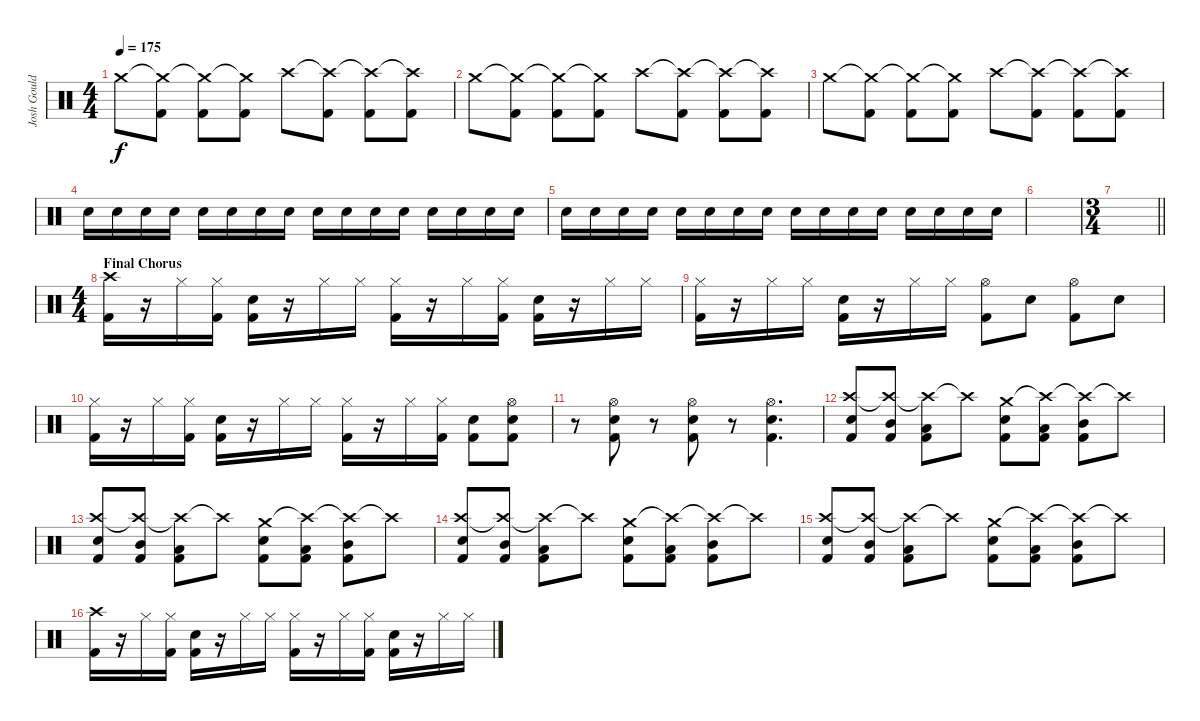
\track ("Josh Gould - Drums" "Josh Gould") {instrument percussion}
\staff {score}
\articulation defaults
\ts (4 4)
\tempo 175
\clef neutral
\ks c "Crash medium (hit)".8{dy f}
("Crash medium (hit)"{t} "Kick (hit) 2").8 ("Crash medium (hit)"{t} "Kick (hit) 2").8 ("Crash medium (hit)"{t} "Kick (hit) 2").8 "Crash high (hit)".8 ("Crash high (hit)"{t} "Kick (hit) 2").8 ("Crash high (hit)"{t} "Kick (hit) 2").8 ("Crash high (hit)"{t} "Kick (hit) 2").8 |
"Crash medium (hit)".8 ("Crash medium (hit)"{t} "Kick (hit) 2").8 ("Crash medium (hit)"{t} "Kick (hit) 2").8 ("Crash medium (hit)"{t} "Kick (hit) 2").8 "Crash high (hit)".8 ("Crash high (hit)"{t} "Kick (hit) 2").8 ("Crash high (hit)"{t} "Kick (hit) 2").8 ("Crash high (hit)"{t} "Kick (hit) 2").8 |
"Crash medium (hit)".8 ("Crash medium (hit)"{t} "Kick (hit) 2").8 ("Crash medium (hit)"{t} "Kick (hit) 2").8 ("Crash medium (hit)"{t} "Kick (hit) 2").8 "Crash high (hit)".8 ("Crash high (hit)"{t} "Kick (hit) 2").8 ("Crash high (hit)"{t} "Kick (hit) 2").8 ("Crash high (hit)"{t} "Kick (hit) 2").8 |
"Snare (hit) 2".16 "Snare (hit) 2".16 "Snare (hit) 2".16 "Snare (hit) 2".16 "Snare (hit) 2".16 "Snare (hit) 2".16 "Snare (hit) 2".16 "Snare (hit) 2".16 "Snare (hit) 2".16 "Snare (hit) 2".16 "Snare (hit) 2".16 "Snare (hit) 2".16 "Snare (hit) 2".16 "Snare (hit) 2".16 "Snare (hit) 2".16 "Snare (hit) 2".16 |
"Snare (hit) 2".16 "Snare (hit) 2".16 "Snare (hit) 2".16 "Snare (hit) 2".16 "Snare (hit) 2".16 "Snare (hit) 2".16 "Snare (hit) 2".16 "Snare (hit) 2".16 "Snare (hit) 2".16 "Snare (hit) 2".16 "Snare (hit) 2".16 "Snare (hit) 2".16 "Snare (hit) 2".16 "Snare (hit) 2".16 "Snare (hit) 2".16 "Snare (hit) 2".16 |
|
\ts (3 4)
\barLineRight lightlight
|
\ts (4 4)
\section ("" "Final Chorus")
("Crash high (hit)" "Kick (hit) 2").16 r.16 "Hi-Hat (closed)".16 ("Hi-Hat (closed)" "Kick (hit) 2").16 ("Snare (hit) 2" "Kick (hit) 2").16 r.16 "Hi-Hat (closed)".16 "Hi-Hat (closed)".16 ("Hi-Hat (closed)" "Kick (hit) 2").16 r.16 "Hi-Hat (closed)".16 ("Hi-Hat (closed)" "Kick (hit) 2").16 ("Snare (hit) 2" "Kick (hit) 2").16 r.16 "Hi-Hat (closed)".16 "Hi-Hat (closed)".16 |
("Hi-Hat (closed)" "Kick (hit) 2").16 r.16 "Hi-Hat (closed)".16 "Hi-Hat (closed)".16 ("Snare (hit) 2" "Kick (hit) 2").16 r.16 "Hi-Hat (closed)".16 "Hi-Hat (closed)".16 ("Hi-Hat (open)" "Kick (hit) 2").8 "Snare (hit) 2".8 ("Hi-Hat (open)" "Kick (hit) 2").8 "Snare (hit) 2".8 |
("Hi-Hat (closed)" "Kick (hit) 2").16 r.16 "Hi-Hat (closed)".16 ("Hi-Hat (closed)" "Kick (hit) 2").16 ("Snare (hit) 2" "Kick (hit) 2").16 r.16 "Hi-Hat (closed)".16 "Hi-Hat (closed)".16 ("Hi-Hat (closed)" "Kick (hit) 2").16 r.16 "Hi-Hat (closed)".16 ("Hi-Hat (closed)" "Kick (hit) 2").16 ("Snare (hit) 2" "Kick (hit) 2").8 ("Hi-Hat (open)" "Snare (hit) 2" "Kick (hit) 2").8 |
r.8 ("Hi-Hat (open)" "Snare (hit) 2" "Kick (hit) 2").8 r.8 ("Hi-Hat (open)" "Snare (hit) 2" "Kick (hit) 2").8 r.8 ("Hi-Hat (open)" "Snare (hit) 2" "Kick (hit) 2").4{d} |
("Crash high (hit)" "Snare (hit) 2" "Kick (hit) 2").8 ("Crash high (hit)"{t} "Mid Tom (hit)" "Kick (hit) 2").8 ("Crash high (hit)"{t} "Low Tom (hit)" "Kick (hit) 2").8 "Crash high (hit)"{t}.8 ("Crash medium (hit)" "Snare (hit) 2" "Kick (hit) 2").8 ("Crash high (hit)"{t} "Low Tom (hit)" "Kick (hit) 2").8 ("Crash high (hit)"{t} "Mid Tom (hit)" "Kick (hit) 2").8 "Crash high (hit)"{t}.8 |
("Crash high (hit)" "Snare (hit) 2" "Kick (hit) 2").8 ("Crash high (hit)"{t} "Mid Tom (hit)" "Kick (hit) 2").8 ("Crash high (hit)"{t} "Low Tom (hit)" "Kick (hit) 2").8 "Crash high (hit)"{t}.8 ("Crash medium (hit)" "Snare (hit) 2" "Kick (hit) 2").8 ("Crash high (hit)"{t} "Low Tom (hit)" "Kick (hit) 2").8 ("Crash high (hit)"{t} "Mid Tom (hit)" "Kick (hit) 2").8 "Crash high (hit)"{t}.8 |
("Crash high (hit)" "Snare (hit) 2" "Kick (hit) 2").8 ("Crash high (hit)"{t} "Mid Tom (hit)" "Kick (hit) 2").8 ("Crash high (hit)"{t} "Low Tom (hit)" "Kick (hit) 2").8 "Crash high (hit)"{t}.8 ("Crash medium (hit)" "Snare (hit) 2" "Kick (hit) 2").8 ("Crash high (hit)"{t} "Low Tom (hit)" "Kick (hit) 2").8 ("Crash high (hit)"{t} "Mid Tom (hit)" "Kick (hit) 2").8 "Crash high (hit)"{t}.8 |
("Crash high (hit)" "Snare (hit) 2" "Kick (hit) 2").8 ("Crash high (hit)"{t} "Mid Tom (hit)" "Kick (hit) 2").8 ("Crash high (hit)"{t} "Low Tom (hit)" "Kick (hit) 2").8 "Crash high (hit)"{t}.8 ("Crash medium (hit)" "Snare (hit) 2" "Kick (hit) 2").8 ("Crash high (hit)"{t} "Low Tom (hit)" "Kick (hit) 2").8 ("Crash high (hit)"{t} "Mid Tom (hit)" "Kick (hit) 2").8 "Crash high (hit)"{t}.8 |
("Crash high (hit)" "Kick (hit) 2").16 r.16 "Hi-Hat (closed)".16 ("Hi-Hat (closed)" "Kick (hit) 2").16 ("Snare (hit) 2" "Kick (hit) 2").16 r.16 "Hi-Hat (closed)".16 "Hi-Hat (closed)".16 ("Hi-Hat (closed)" "Kick (hit) 2").16 r.16 "Hi-Hat (closed)".16 ("Hi-Hat (closed)" "Kick (hit) 2").16 ("Snare (hit) 2" "Kick (hit) 2").16 r.16 "Hi-Hat (closed)".16 "Hi-Hat (closed)".16
